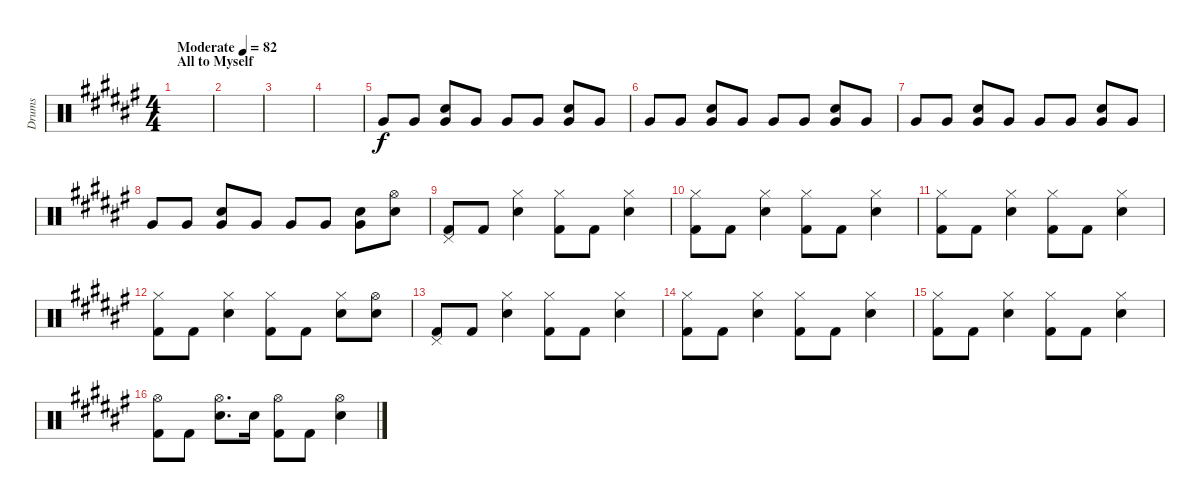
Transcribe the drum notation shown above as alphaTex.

\track ("Drums" "Drums") {instrument percussion}
\staff {score}
\articulation defaults
\ts (4 4)
\section ("" "All to Myself")
\tempo (82 "Moderate")
\tempo 135
\tempo (82 "Moderate")
\clef neutral
\ks f#
|
|
|
|
"Very Low Tom (hit)".8 "Very Low Tom (hit)".8 ("Electric Snare (hit)" "Very Low Tom (hit)").8 "Very Low Tom (hit)".8 "Very Low Tom (hit)".8 "Very Low Tom (hit)".8 ("Electric Snare (hit)" "Very Low Tom (hit)").8 "Very Low Tom (hit)".8 |
"Very Low Tom (hit)".8 "Very Low Tom (hit)".8 ("Electric Snare (hit)" "Very Low Tom (hit)").8 "Very Low Tom (hit)".8 "Very Low Tom (hit)".8 "Very Low Tom (hit)".8 ("Electric Snare (hit)" "Very Low Tom (hit)").8 "Very Low Tom (hit)".8 |
"Very Low Tom (hit)".8 "Very Low Tom (hit)".8 ("Electric Snare (hit)" "Very Low Tom (hit)").8 "Very Low Tom (hit)".8 "Very Low Tom (hit)".8 "Very Low Tom (hit)".8 ("Electric Snare (hit)" "Very Low Tom (hit)").8 "Very Low Tom (hit)".8 |
"Very Low Tom (hit)".8 "Very Low Tom (hit)".8 ("Electric Snare (hit)" "Very Low Tom (hit)").8 "Very Low Tom (hit)".8 "Very Low Tom (hit)".8 "Very Low Tom (hit)".8 ("Electric Snare (hit)" "Very Low Tom (hit)").8 ("Hi-Hat (open)" "Electric Snare (hit)").8 |
("Pedal Hi-Hat (hit)" "Kick (hit) 2").8 "Kick (hit) 2".8 ("Hi-Hat (closed)" "Electric Snare (hit)").4 ("Hi-Hat (closed)" "Kick (hit) 2").8 "Kick (hit) 2".8 ("Hi-Hat (closed)" "Electric Snare (hit)").4 |
("Hi-Hat (closed)" "Kick (hit) 2").8 "Kick (hit) 2".8 ("Hi-Hat (closed)" "Electric Snare (hit)").4 ("Hi-Hat (closed)" "Kick (hit) 2").8 "Kick (hit) 2".8 ("Hi-Hat (closed)" "Electric Snare (hit)").4 |
("Hi-Hat (closed)" "Kick (hit) 2").8 "Kick (hit) 2".8 ("Hi-Hat (closed)" "Electric Snare (hit)").4 ("Hi-Hat (closed)" "Kick (hit) 2").8 "Kick (hit) 2".8 ("Hi-Hat (closed)" "Electric Snare (hit)").4 |
("Hi-Hat (closed)" "Kick (hit) 2").8 "Kick (hit) 2".8 ("Hi-Hat (closed)" "Electric Snare (hit)").4 ("Hi-Hat (closed)" "Kick (hit) 2").8 "Kick (hit) 2".8 ("Hi-Hat (closed)" "Electric Snare (hit)").8 ("Hi-Hat (open)" "Electric Snare (hit)").8 |
("Pedal Hi-Hat (hit)" "Kick (hit) 2").8 "Kick (hit) 2".8 ("Hi-Hat (closed)" "Electric Snare (hit)").4 ("Hi-Hat (closed)" "Kick (hit) 2").8 "Kick (hit) 2".8 ("Hi-Hat (closed)" "Electric Snare (hit)").4 |
("Hi-Hat (closed)" "Kick (hit) 2").8 "Kick (hit) 2".8 ("Hi-Hat (closed)" "Electric Snare (hit)").4 ("Hi-Hat (closed)" "Kick (hit) 2").8 "Kick (hit) 2".8 ("Hi-Hat (closed)" "Electric Snare (hit)").4 |
("Hi-Hat (closed)" "Kick (hit) 2").8 "Kick (hit) 2".8 ("Hi-Hat (closed)" "Electric Snare (hit)").4 ("Hi-Hat (closed)" "Kick (hit) 2").8 "Kick (hit) 2".8 ("Hi-Hat (closed)" "Electric Snare (hit)").4 |
("Hi-Hat (open)" "Kick (hit) 2").8 "Kick (hit) 2".8 ("Hi-Hat (open)" "Electric Snare (hit)").8{d} "Electric Snare (hit)".16 ("Hi-Hat (open)" "Kick (hit) 2").8 "Kick (hit) 2".8 ("Hi-Hat (open)" "Electric Snare (hit)").4
